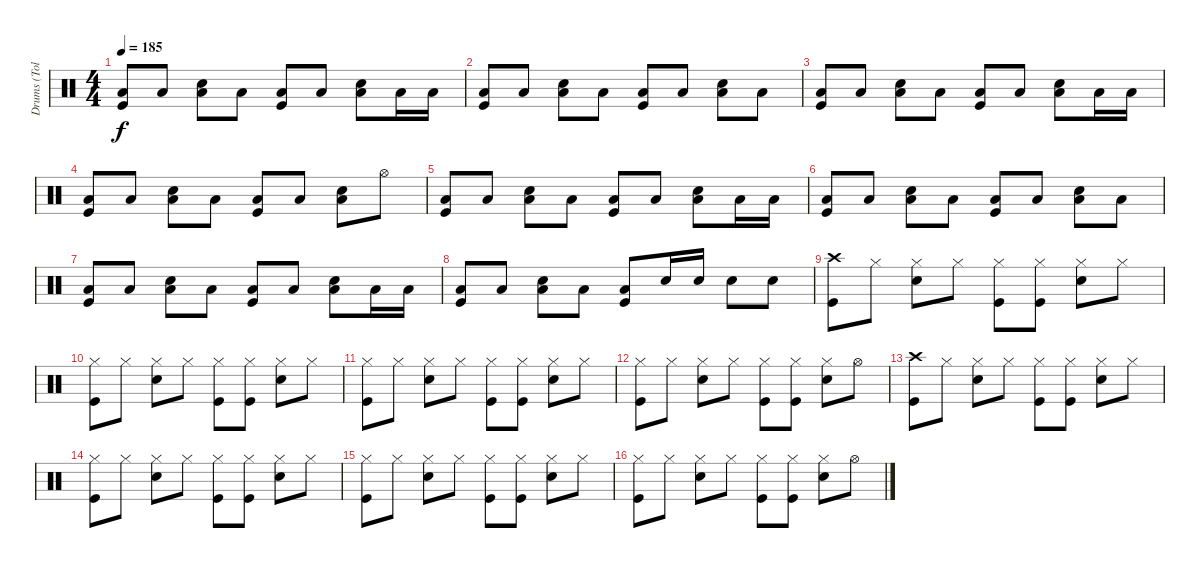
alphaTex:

\track ("Drums (Tolik)" "Drums (Tol") {instrument percussion}
\staff {score}
\articulation defaults
\ts (4 4)
\tempo 185
\clef neutral
\ks c
("Low Floor Tom (hit)" "Kick (hit)").8{dy f} "Low Floor Tom (hit)".8 ("Low Floor Tom (hit)" "Electric Snare (hit)").8 "Low Floor Tom (hit)".8 ("Low Floor Tom (hit)" "Kick (hit)").8 "Low Floor Tom (hit)".8 ("Low Floor Tom (hit)" "Electric Snare (hit)").8 "Low Floor Tom (hit)".16 "Low Floor Tom (hit)".16 |
("Low Floor Tom (hit)" "Kick (hit)").8 "Low Floor Tom (hit)".8 ("Low Floor Tom (hit)" "Electric Snare (hit)").8 "Low Floor Tom (hit)".8 ("Low Floor Tom (hit)" "Kick (hit)").8 "Low Floor Tom (hit)".8 ("Low Floor Tom (hit)" "Electric Snare (hit)").8 "Low Floor Tom (hit)".8 |
("Low Floor Tom (hit)" "Kick (hit)").8 "Low Floor Tom (hit)".8 ("Low Floor Tom (hit)" "Electric Snare (hit)").8 "Low Floor Tom (hit)".8 ("Low Floor Tom (hit)" "Kick (hit)").8 "Low Floor Tom (hit)".8 ("Low Floor Tom (hit)" "Electric Snare (hit)").8 "Low Floor Tom (hit)".16 "Low Floor Tom (hit)".16 |
("Low Floor Tom (hit)" "Kick (hit)").8 "Low Floor Tom (hit)".8 ("Low Floor Tom (hit)" "Electric Snare (hit)").8 "Low Floor Tom (hit)".8 ("Low Floor Tom (hit)" "Kick (hit)").8 "Low Floor Tom (hit)".8 ("Low Floor Tom (hit)" "Electric Snare (hit)").8 "Hi-Hat (open)".8 |
("Low Floor Tom (hit)" "Kick (hit)").8 "Low Floor Tom (hit)".8 ("Low Floor Tom (hit)" "Electric Snare (hit)").8 "Low Floor Tom (hit)".8 ("Low Floor Tom (hit)" "Kick (hit)").8 "Low Floor Tom (hit)".8 ("Low Floor Tom (hit)" "Electric Snare (hit)").8 "Low Floor Tom (hit)".16 "Low Floor Tom (hit)".16 |
("Low Floor Tom (hit)" "Kick (hit)").8 "Low Floor Tom (hit)".8 ("Low Floor Tom (hit)" "Electric Snare (hit)").8 "Low Floor Tom (hit)".8 ("Low Floor Tom (hit)" "Kick (hit)").8 "Low Floor Tom (hit)".8 ("Low Floor Tom (hit)" "Electric Snare (hit)").8 "Low Floor Tom (hit)".8 |
("Low Floor Tom (hit)" "Kick (hit)").8 "Low Floor Tom (hit)".8 ("Low Floor Tom (hit)" "Electric Snare (hit)").8 "Low Floor Tom (hit)".8 ("Low Floor Tom (hit)" "Kick (hit)").8 "Low Floor Tom (hit)".8 ("Low Floor Tom (hit)" "Electric Snare (hit)").8 "Low Floor Tom (hit)".16 "Low Floor Tom (hit)".16 |
("Low Floor Tom (hit)" "Kick (hit)").8 "Low Floor Tom (hit)".8 ("Low Floor Tom (hit)" "Electric Snare (hit)").8 "Low Floor Tom (hit)".8 ("Low Floor Tom (hit)" "Kick (hit)").8 "Electric Snare (hit)".16 "Electric Snare (hit)".16 "Electric Snare (hit)".8 "Electric Snare (hit)".8 |
("Crash high (hit)" "Kick (hit)").8 "Hi-Hat (closed)".8 ("Hi-Hat (closed)" "Electric Snare (hit)").8 "Hi-Hat (closed)".8 ("Hi-Hat (closed)" "Kick (hit)").8 ("Hi-Hat (closed)" "Kick (hit)").8 ("Hi-Hat (closed)" "Electric Snare (hit)").8 "Hi-Hat (closed)".8 |
("Hi-Hat (closed)" "Kick (hit)").8 "Hi-Hat (closed)".8 ("Hi-Hat (closed)" "Electric Snare (hit)").8 "Hi-Hat (closed)".8 ("Hi-Hat (closed)" "Kick (hit)").8 ("Hi-Hat (closed)" "Kick (hit)").8 ("Hi-Hat (closed)" "Electric Snare (hit)").8 "Hi-Hat (closed)".8 |
("Hi-Hat (closed)" "Kick (hit)").8 "Hi-Hat (closed)".8 ("Hi-Hat (closed)" "Electric Snare (hit)").8 "Hi-Hat (closed)".8 ("Hi-Hat (closed)" "Kick (hit)").8 ("Hi-Hat (closed)" "Kick (hit)").8 ("Hi-Hat (closed)" "Electric Snare (hit)").8 "Hi-Hat (closed)".8 |
("Hi-Hat (closed)" "Kick (hit)").8 "Hi-Hat (closed)".8 ("Hi-Hat (closed)" "Electric Snare (hit)").8 "Hi-Hat (closed)".8 ("Hi-Hat (closed)" "Kick (hit)").8 ("Hi-Hat (closed)" "Kick (hit)").8 ("Hi-Hat (closed)" "Electric Snare (hit)").8 "Hi-Hat (open)".8 |
("Crash high (hit)" "Kick (hit)").8 "Hi-Hat (closed)".8 ("Hi-Hat (closed)" "Electric Snare (hit)").8 "Hi-Hat (closed)".8 ("Hi-Hat (closed)" "Kick (hit)").8 ("Hi-Hat (closed)" "Kick (hit)").8 ("Hi-Hat (closed)" "Electric Snare (hit)").8 "Hi-Hat (closed)".8 |
("Hi-Hat (closed)" "Kick (hit)").8 "Hi-Hat (closed)".8 ("Hi-Hat (closed)" "Electric Snare (hit)").8 "Hi-Hat (closed)".8 ("Hi-Hat (closed)" "Kick (hit)").8 ("Hi-Hat (closed)" "Kick (hit)").8 ("Hi-Hat (closed)" "Electric Snare (hit)").8 "Hi-Hat (closed)".8 |
("Hi-Hat (closed)" "Kick (hit)").8 "Hi-Hat (closed)".8 ("Hi-Hat (closed)" "Electric Snare (hit)").8 "Hi-Hat (closed)".8 ("Hi-Hat (closed)" "Kick (hit)").8 ("Hi-Hat (closed)" "Kick (hit)").8 ("Hi-Hat (closed)" "Electric Snare (hit)").8 "Hi-Hat (closed)".8 |
("Hi-Hat (closed)" "Kick (hit)").8 "Hi-Hat (closed)".8 ("Hi-Hat (closed)" "Electric Snare (hit)").8 "Hi-Hat (closed)".8 ("Hi-Hat (closed)" "Kick (hit)").8 ("Hi-Hat (closed)" "Kick (hit)").8 ("Hi-Hat (closed)" "Electric Snare (hit)").8 "Hi-Hat (open)".8
